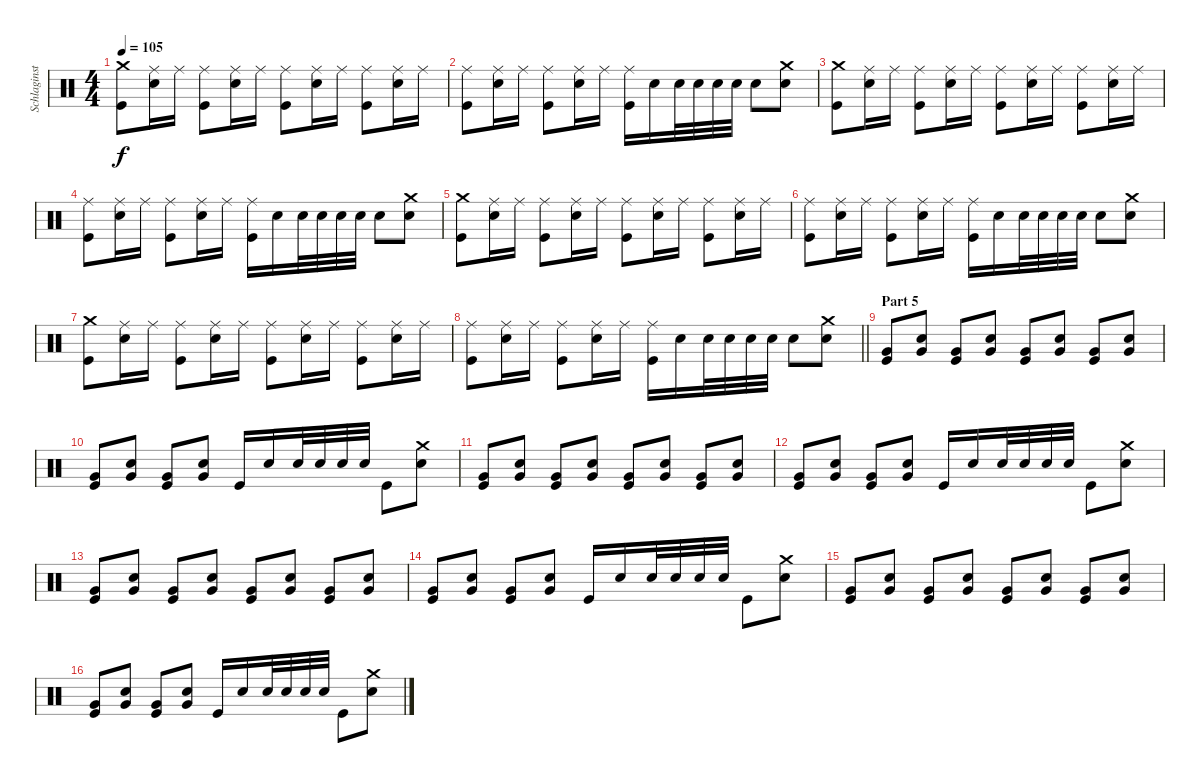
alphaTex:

\track ("Schlaginstrumente - Auswahl" "Schlaginst") {instrument percussion}
\staff {score}
\articulation defaults
\ts (4 4)
\tempo 105
\clef neutral
\ks c
("Crash medium (hit)" "Kick (hit)").8{dy f} ("Ride (middle)" "Snare (hit) 2").16 "Ride (middle)".16 ("Ride (middle)" "Kick (hit)").8 ("Ride (middle)" "Snare (hit) 2").16 "Ride (middle)".16 ("Ride (middle)" "Kick (hit)").8 ("Ride (middle)" "Snare (hit) 2").16 "Ride (middle)".16 ("Ride (middle)" "Kick (hit)").8 ("Ride (middle)" "Snare (hit) 2").16 "Ride (middle)".16 |
("Ride (middle)" "Kick (hit)").8 ("Ride (middle)" "Snare (hit) 2").16 "Ride (middle)".16 ("Ride (middle)" "Kick (hit)").8 ("Ride (middle)" "Snare (hit) 2").16 "Ride (middle)".16 ("Ride (middle)" "Kick (hit)").16 "Snare (hit) 2".16 "Snare (hit) 2".32 "Snare (hit) 2".32 "Snare (hit) 2".32 "Snare (hit) 2".32 "Snare (hit) 2".8 ("Crash medium (hit)" "Snare (hit) 2").8 |
("Crash medium (hit)" "Kick (hit)").8 ("Ride (middle)" "Snare (hit) 2").16 "Ride (middle)".16 ("Ride (middle)" "Kick (hit)").8 ("Ride (middle)" "Snare (hit) 2").16 "Ride (middle)".16 ("Ride (middle)" "Kick (hit)").8 ("Ride (middle)" "Snare (hit) 2").16 "Ride (middle)".16 ("Ride (middle)" "Kick (hit)").8 ("Ride (middle)" "Snare (hit) 2").16 "Ride (middle)".16 |
("Ride (middle)" "Kick (hit)").8 ("Ride (middle)" "Snare (hit) 2").16 "Ride (middle)".16 ("Ride (middle)" "Kick (hit)").8 ("Ride (middle)" "Snare (hit) 2").16 "Ride (middle)".16 ("Ride (middle)" "Kick (hit)").16 "Snare (hit) 2".16 "Snare (hit) 2".32 "Snare (hit) 2".32 "Snare (hit) 2".32 "Snare (hit) 2".32 "Snare (hit) 2".8 ("Crash medium (hit)" "Snare (hit) 2").8 |
("Crash medium (hit)" "Kick (hit)").8 ("Ride (middle)" "Snare (hit) 2").16 "Ride (middle)".16 ("Ride (middle)" "Kick (hit)").8 ("Ride (middle)" "Snare (hit) 2").16 "Ride (middle)".16 ("Ride (middle)" "Kick (hit)").8 ("Ride (middle)" "Snare (hit) 2").16 "Ride (middle)".16 ("Ride (middle)" "Kick (hit)").8 ("Ride (middle)" "Snare (hit) 2").16 "Ride (middle)".16 |
("Ride (middle)" "Kick (hit)").8 ("Ride (middle)" "Snare (hit) 2").16 "Ride (middle)".16 ("Ride (middle)" "Kick (hit)").8 ("Ride (middle)" "Snare (hit) 2").16 "Ride (middle)".16 ("Ride (middle)" "Kick (hit)").16 "Snare (hit) 2".16 "Snare (hit) 2".32 "Snare (hit) 2".32 "Snare (hit) 2".32 "Snare (hit) 2".32 "Snare (hit) 2".8 ("Crash medium (hit)" "Snare (hit) 2").8 |
("Crash medium (hit)" "Kick (hit)").8 ("Ride (middle)" "Snare (hit) 2").16 "Ride (middle)".16 ("Ride (middle)" "Kick (hit)").8 ("Ride (middle)" "Snare (hit) 2").16 "Ride (middle)".16 ("Ride (middle)" "Kick (hit)").8 ("Ride (middle)" "Snare (hit) 2").16 "Ride (middle)".16 ("Ride (middle)" "Kick (hit)").8 ("Ride (middle)" "Snare (hit) 2").16 "Ride (middle)".16 |
\barLineRight lightlight
("Ride (middle)" "Kick (hit)").8 ("Ride (middle)" "Snare (hit) 2").16 "Ride (middle)".16 ("Ride (middle)" "Kick (hit)").8 ("Ride (middle)" "Snare (hit) 2").16 "Ride (middle)".16 ("Ride (middle)" "Kick (hit)").16 "Snare (hit) 2".16 "Snare (hit) 2".32 "Snare (hit) 2".32 "Snare (hit) 2".32 "Snare (hit) 2".32 "Snare (hit) 2".8 ("Crash medium (hit)" "Snare (hit) 2").8 |
\section ("" "Part 5")
("Very Low Tom (hit)" "Kick (hit)").8 ("Very Low Tom (hit)" "Snare (hit) 2").8 ("Very Low Tom (hit)" "Kick (hit)").8 ("Very Low Tom (hit)" "Snare (hit) 2").8 ("Very Low Tom (hit)" "Kick (hit)").8 ("Very Low Tom (hit)" "Snare (hit) 2").8 ("Very Low Tom (hit)" "Kick (hit)").8 ("Very Low Tom (hit)" "Snare (hit) 2").8 |
("Very Low Tom (hit)" "Kick (hit)").8 ("Very Low Tom (hit)" "Snare (hit) 2").8 ("Very Low Tom (hit)" "Kick (hit)").8 ("Very Low Tom (hit)" "Snare (hit) 2").8 "Kick (hit)".16 "Snare (hit) 2".16 "Snare (hit) 2".32 "Snare (hit) 2".32 "Snare (hit) 2".32 "Snare (hit) 2".32 "Kick (hit)".8 ("Crash medium (hit)" "Snare (hit) 2").8 |
("Very Low Tom (hit)" "Kick (hit)").8 ("Very Low Tom (hit)" "Snare (hit) 2").8 ("Very Low Tom (hit)" "Kick (hit)").8 ("Very Low Tom (hit)" "Snare (hit) 2").8 ("Very Low Tom (hit)" "Kick (hit)").8 ("Very Low Tom (hit)" "Snare (hit) 2").8 ("Very Low Tom (hit)" "Kick (hit)").8 ("Very Low Tom (hit)" "Snare (hit) 2").8 |
("Very Low Tom (hit)" "Kick (hit)").8 ("Very Low Tom (hit)" "Snare (hit) 2").8 ("Very Low Tom (hit)" "Kick (hit)").8 ("Very Low Tom (hit)" "Snare (hit) 2").8 "Kick (hit)".16 "Snare (hit) 2".16 "Snare (hit) 2".32 "Snare (hit) 2".32 "Snare (hit) 2".32 "Snare (hit) 2".32 "Kick (hit)".8 ("Crash medium (hit)" "Snare (hit) 2").8 |
("Very Low Tom (hit)" "Kick (hit)").8 ("Very Low Tom (hit)" "Snare (hit) 2").8 ("Very Low Tom (hit)" "Kick (hit)").8 ("Very Low Tom (hit)" "Snare (hit) 2").8 ("Very Low Tom (hit)" "Kick (hit)").8 ("Very Low Tom (hit)" "Snare (hit) 2").8 ("Very Low Tom (hit)" "Kick (hit)").8 ("Very Low Tom (hit)" "Snare (hit) 2").8 |
("Very Low Tom (hit)" "Kick (hit)").8 ("Very Low Tom (hit)" "Snare (hit) 2").8 ("Very Low Tom (hit)" "Kick (hit)").8 ("Very Low Tom (hit)" "Snare (hit) 2").8 "Kick (hit)".16 "Snare (hit) 2".16 "Snare (hit) 2".32 "Snare (hit) 2".32 "Snare (hit) 2".32 "Snare (hit) 2".32 "Kick (hit)".8 ("Crash medium (hit)" "Snare (hit) 2").8 |
("Very Low Tom (hit)" "Kick (hit)").8 ("Very Low Tom (hit)" "Snare (hit) 2").8 ("Very Low Tom (hit)" "Kick (hit)").8 ("Very Low Tom (hit)" "Snare (hit) 2").8 ("Very Low Tom (hit)" "Kick (hit)").8 ("Very Low Tom (hit)" "Snare (hit) 2").8 ("Very Low Tom (hit)" "Kick (hit)").8 ("Very Low Tom (hit)" "Snare (hit) 2").8 |
("Very Low Tom (hit)" "Kick (hit)").8 ("Very Low Tom (hit)" "Snare (hit) 2").8 ("Very Low Tom (hit)" "Kick (hit)").8 ("Very Low Tom (hit)" "Snare (hit) 2").8 "Kick (hit)".16 "Snare (hit) 2".16 "Snare (hit) 2".32 "Snare (hit) 2".32 "Snare (hit) 2".32 "Snare (hit) 2".32 "Kick (hit)".8 ("Crash medium (hit)" "Snare (hit) 2").8
